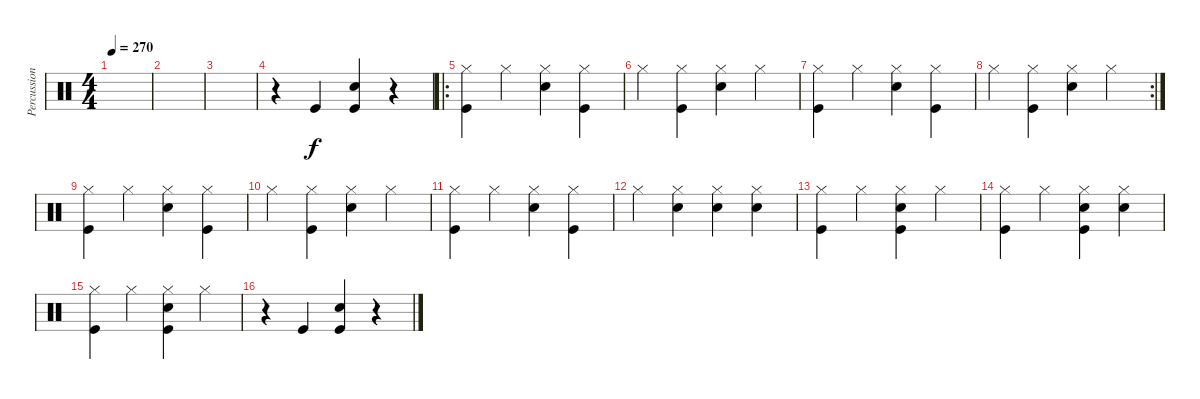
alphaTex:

\track ("Percussions" "Percussion") {instrument percussion}
\staff {score}
\articulation defaults
\ts (4 4)
\tempo 270
\clef neutral
\ks c
|
|
|
r.4 "Kick (hit)".4 ("Snare (hit) 2" "Kick (hit)").4 r.4 |
\ro
("Hi-Hat (closed)" "Kick (hit)").4 "Hi-Hat (closed)".4 ("Hi-Hat (closed)" "Snare (hit) 2").4 ("Hi-Hat (closed)" "Kick (hit)").4 |
"Hi-Hat (closed)".4 ("Hi-Hat (closed)" "Kick (hit)").4 ("Hi-Hat (closed)" "Snare (hit) 2").4 "Hi-Hat (closed)".4 |
("Hi-Hat (closed)" "Kick (hit)").4 "Hi-Hat (closed)".4 ("Hi-Hat (closed)" "Snare (hit) 2").4 ("Hi-Hat (closed)" "Kick (hit)").4 |
\rc 2 "Hi-Hat (closed)".4
("Hi-Hat (closed)" "Kick (hit)").4 ("Hi-Hat (closed)" "Snare (hit) 2").4 "Hi-Hat (closed)".4 |
("Hi-Hat (closed)" "Kick (hit)").4 "Hi-Hat (closed)".4 ("Hi-Hat (closed)" "Snare (hit) 2").4 ("Hi-Hat (closed)" "Kick (hit)").4 |
"Hi-Hat (closed)".4 ("Hi-Hat (closed)" "Kick (hit)").4 ("Hi-Hat (closed)" "Snare (hit) 2").4 "Hi-Hat (closed)".4 |
("Hi-Hat (closed)" "Kick (hit)").4 "Hi-Hat (closed)".4 ("Hi-Hat (closed)" "Snare (hit) 2").4 ("Hi-Hat (closed)" "Kick (hit)").4 |
"Hi-Hat (closed)".4 ("Hi-Hat (closed)" "Snare (hit) 2").4 ("Hi-Hat (closed)" "Snare (hit) 2").4 ("Hi-Hat (closed)" "Snare (hit) 2").4 |
("Hi-Hat (closed)" "Kick (hit)").4 "Hi-Hat (closed)".4 ("Hi-Hat (closed)" "Snare (hit) 2" "Kick (hit)").4 "Hi-Hat (closed)".4 |
("Hi-Hat (closed)" "Kick (hit)").4 "Hi-Hat (closed)".4 ("Hi-Hat (closed)" "Snare (hit) 2" "Kick (hit)").4 ("Hi-Hat (closed)" "Snare (hit) 2").4 |
("Hi-Hat (closed)" "Kick (hit)").4 "Hi-Hat (closed)".4 ("Hi-Hat (closed)" "Snare (hit) 2" "Kick (hit)").4 "Hi-Hat (closed)".4 |
r.4 "Kick (hit)".4 ("Kick (hit)" "Snare (hit) 2").4 r.4
